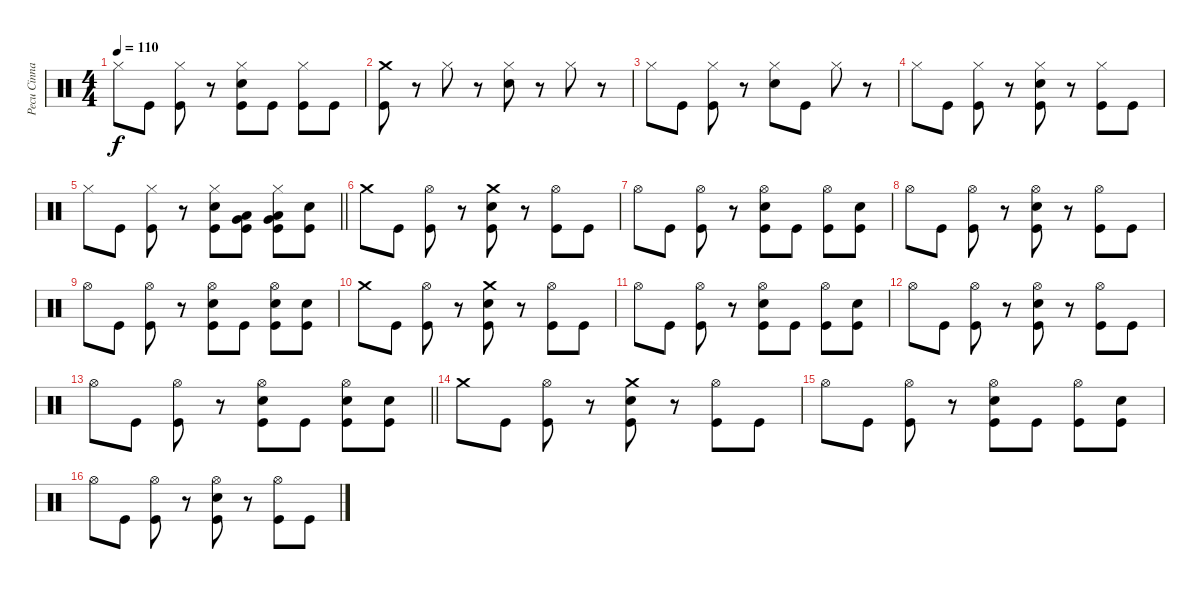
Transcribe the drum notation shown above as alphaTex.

\track ("Pecu Cinnari" "Pecu Cinna") {instrument percussion}
\staff {score}
\articulation defaults
\ts (4 4)
\tempo 110
\clef neutral
\ks c "Hi-Hat (closed)".8{dy f} "Kick (hit)".8
("Hi-Hat (closed)" "Kick (hit)").8 r.8 ("Hi-Hat (closed)" "Snare (hit) 2" "Kick (hit)").8 "Kick (hit)".8 ("Hi-Hat (closed)" "Kick (hit)").8 "Kick (hit)".8 |
("Crash medium (hit)" "Kick (hit)").8 r.8 "Hi-Hat (closed)".8 r.8 ("Hi-Hat (closed)" "Snare (hit) 2").8 r.8 "Hi-Hat (closed)".8 r.8 |
"Hi-Hat (closed)".8 "Kick (hit)".8 ("Hi-Hat (closed)" "Kick (hit)").8 r.8 ("Hi-Hat (closed)" "Snare (hit) 2").8 "Kick (hit)".8 "Hi-Hat (closed)".8 r.8 |
"Hi-Hat (closed)".8 "Kick (hit)".8 ("Hi-Hat (closed)" "Kick (hit)").8 r.8 ("Hi-Hat (closed)" "Snare (hit) 2" "Kick (hit)").8 r.8 ("Hi-Hat (closed)" "Kick (hit)").8 "Kick (hit)".8 |
\barLineRight lightlight "Hi-Hat (closed)".8 "Kick (hit)".8
("Hi-Hat (closed)" "Kick (hit)").8 r.8 ("Hi-Hat (closed)" "Snare (hit) 2" "Kick (hit)").8 ("Very Low Tom (hit)" "Low Tom (hit)" "Kick (hit)").8 ("Hi-Hat (closed)" "Low Floor Tom (hit)" "Very Low Tom (hit)" "Kick (hit)").8 ("Snare (hit) 2" "Kick (hit)").8 |
\section ("" "")
"Crash medium (hit)".8 "Kick (hit)".8 ("Hi-Hat (open)" "Kick (hit)").8 r.8 ("Crash medium (hit)" "Snare (hit) 2" "Kick (hit)").8 r.8 ("Hi-Hat (open)" "Kick (hit)").8 "Kick (hit)".8 |
"Hi-Hat (open)".8 "Kick (hit)".8 ("Hi-Hat (open)" "Kick (hit)").8 r.8 ("Hi-Hat (open)" "Snare (hit) 2" "Kick (hit)").8 "Kick (hit)".8 ("Hi-Hat (open)" "Kick (hit)").8 ("Snare (hit) 2" "Kick (hit)").8 |
"Hi-Hat (open)".8 "Kick (hit)".8 ("Hi-Hat (open)" "Kick (hit)").8 r.8 ("Hi-Hat (open)" "Snare (hit) 2" "Kick (hit)").8 r.8 ("Hi-Hat (open)" "Kick (hit)").8 "Kick (hit)".8 |
"Hi-Hat (open)".8 "Kick (hit)".8 ("Hi-Hat (open)" "Kick (hit)").8 r.8 ("Hi-Hat (open)" "Snare (hit) 2" "Kick (hit)").8 "Kick (hit)".8 ("Hi-Hat (open)" "Snare (hit) 2" "Kick (hit)").8 ("Snare (hit) 2" "Kick (hit)").8 |
"Crash medium (hit)".8 "Kick (hit)".8 ("Hi-Hat (open)" "Kick (hit)").8 r.8 ("Crash medium (hit)" "Snare (hit) 2" "Kick (hit)").8 r.8 ("Hi-Hat (open)" "Kick (hit)").8 "Kick (hit)".8 |
"Hi-Hat (open)".8 "Kick (hit)".8 ("Hi-Hat (open)" "Kick (hit)").8 r.8 ("Hi-Hat (open)" "Snare (hit) 2" "Kick (hit)").8 "Kick (hit)".8 ("Hi-Hat (open)" "Kick (hit)").8 ("Snare (hit) 2" "Kick (hit)").8 |
"Hi-Hat (open)".8 "Kick (hit)".8 ("Hi-Hat (open)" "Kick (hit)").8 r.8 ("Hi-Hat (open)" "Snare (hit) 2" "Kick (hit)").8 r.8 ("Hi-Hat (open)" "Kick (hit)").8 "Kick (hit)".8 |
\barLineRight lightlight "Hi-Hat (open)".8 "Kick (hit)".8
("Hi-Hat (open)" "Kick (hit)").8 r.8 ("Hi-Hat (open)" "Snare (hit) 2" "Kick (hit)").8 "Kick (hit)".8 ("Hi-Hat (open)" "Snare (hit) 2" "Kick (hit)").8 ("Snare (hit) 2" "Kick (hit)").8 |
"Crash medium (hit)".8 "Kick (hit)".8 ("Hi-Hat (open)" "Kick (hit)").8 r.8 ("Crash medium (hit)" "Snare (hit) 2" "Kick (hit)").8 r.8 ("Hi-Hat (open)" "Kick (hit)").8 "Kick (hit)".8 |
"Hi-Hat (open)".8 "Kick (hit)".8 ("Hi-Hat (open)" "Kick (hit)").8 r.8 ("Hi-Hat (open)" "Snare (hit) 2" "Kick (hit)").8 "Kick (hit)".8 ("Hi-Hat (open)" "Kick (hit)").8 ("Snare (hit) 2" "Kick (hit)").8 |
"Hi-Hat (open)".8 "Kick (hit)".8 ("Hi-Hat (open)" "Kick (hit)").8 r.8 ("Hi-Hat (open)" "Snare (hit) 2" "Kick (hit)").8 r.8 ("Hi-Hat (open)" "Kick (hit)").8 "Kick (hit)".8
